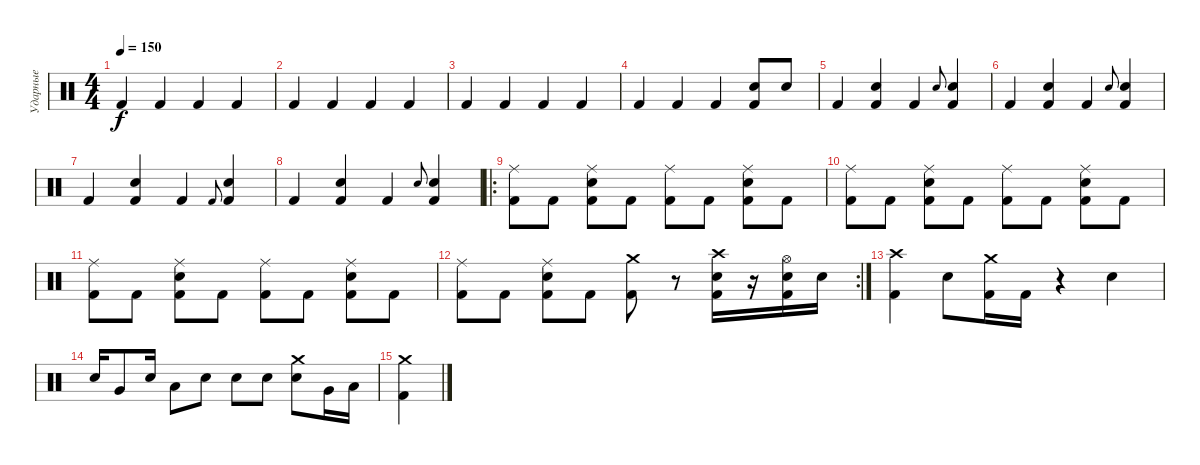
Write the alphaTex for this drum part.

\track ("Ударные" "Ударные") {instrument percussion}
\staff
\articulation defaults
\ts (4 4)
\tempo 140
\tempo 150
\clef neutral
\ks c "Kick (hit) 2".4{dy f} "Kick (hit) 2".4 "Kick (hit) 2".4 "Kick (hit) 2".4
|
"Kick (hit) 2".4 "Kick (hit) 2".4 "Kick (hit) 2".4 "Kick (hit) 2".4 |
"Kick (hit) 2".4 "Kick (hit) 2".4 "Kick (hit) 2".4 "Kick (hit) 2".4 |
"Kick (hit) 2".4 "Kick (hit) 2".4 "Kick (hit) 2".4 ("Kick (hit) 2" "Snare (hit) 2").8 "Snare (hit) 2".8 |
"Kick (hit) 2".4 ("Kick (hit) 2" "Snare (hit) 2").4 "Kick (hit) 2".4 "Snare (hit) 2".8{gr onbeat} ("Kick (hit) 2" "Snare (hit) 2").4 |
"Kick (hit) 2".4 ("Kick (hit) 2" "Snare (hit) 2").4 "Kick (hit) 2".4 "Snare (hit) 2".8{gr onbeat} ("Kick (hit) 2" "Snare (hit) 2").4 |
"Kick (hit) 2".4 ("Kick (hit) 2" "Snare (hit) 2").4 "Kick (hit) 2".4 "Kick (hit) 2".8{gr onbeat} ("Kick (hit) 2" "Snare (hit) 2").4 |
"Kick (hit) 2".4 ("Kick (hit) 2" "Snare (hit) 2").4 "Kick (hit) 2".4 "Snare (hit) 2".8{gr onbeat} ("Kick (hit) 2" "Snare (hit) 2").4 |
\ro
("Kick (hit) 2" "Ride (middle)").8 "Kick (hit) 2".8 ("Kick (hit) 2" "Snare (hit) 2" "Ride (middle)").8 "Kick (hit) 2".8 ("Kick (hit) 2" "Ride (middle)").8 "Kick (hit) 2".8 ("Kick (hit) 2" "Snare (hit) 2" "Ride (middle)").8 "Kick (hit) 2".8 |
("Kick (hit) 2" "Ride (middle)").8 "Kick (hit) 2".8 ("Kick (hit) 2" "Snare (hit) 2" "Ride (middle)").8 "Kick (hit) 2".8 ("Kick (hit) 2" "Ride (middle)").8 "Kick (hit) 2".8 ("Kick (hit) 2" "Snare (hit) 2" "Ride (middle)").8 "Kick (hit) 2".8 |
("Kick (hit) 2" "Ride (middle)").8 "Kick (hit) 2".8 ("Kick (hit) 2" "Snare (hit) 2" "Ride (middle)").8 "Kick (hit) 2".8 ("Kick (hit) 2" "Ride (middle)").8 "Kick (hit) 2".8 ("Kick (hit) 2" "Snare (hit) 2" "Ride (middle)").8 "Kick (hit) 2".8 |
\rc 2
("Kick (hit) 2" "Ride (middle)").8 "Kick (hit) 2".8 ("Kick (hit) 2" "Snare (hit) 2" "Ride (middle)").8 "Kick (hit) 2".8 ("Kick (hit) 2" "Crash medium (hit)").8 r.8 ("Kick (hit) 2" "Snare (hit) 2" "Crash high (hit)").16 r.16 ("Kick (hit) 2" "Snare (hit) 2" "Hi-Hat (open)").16 "Snare (hit) 2".16 |
("Kick (hit) 2" "Crash high (hit)").4 "Snare (hit) 2".8 ("Kick (hit) 2" "Crash medium (hit)").16 "Kick (hit) 2".16 r.4 "Snare (hit) 2".4 |
"Snare (hit) 2".16 "Very Low Tom (hit)".8 "Snare (hit) 2".16 "Low Tom (hit)".8 "Snare (hit) 2".8 "Snare (hit) 2".8 "Snare (hit) 2".8 ("Snare (hit) 2" "Crash medium (hit)").8 "Very Low Tom (hit)".16 "Low Tom (hit)".16 |
("Crash medium (hit)" "Kick (hit) 2").4
